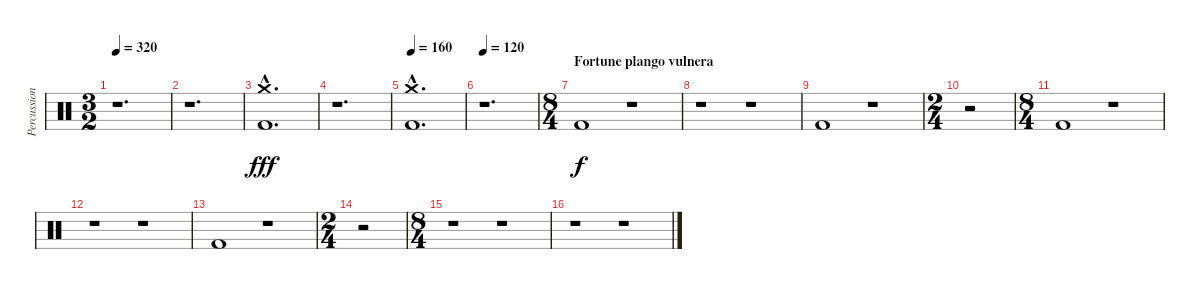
\track ("Percussion" "Percussion") {instrument percussion}
\staff {score}
\articulation defaults
\ts (3 2)
\tempo 320
\clef neutral
\ks c
r.1{d dy fff} |
r.1{d} |
("Kick (hit) 2"{hac} "Crash medium (hit)"{hac}).1{d} |
r.1{d} |
\tempo 160
("Kick (hit) 2"{hac} "Crash medium (hit)"{hac}).1{d} |
\tempo 120
r.1{d} |
\ts (8 4)
\section ("" "Fortune plango vulnera")
"Kick (hit) 2".1{dy f balance 4} r.1 |
r.1 r.1 |
"Kick (hit) 2".1 r.1 |
\ts (2 4)
r.2 |
\ts (8 4)
"Kick (hit) 2".1 r.1 |
r.1 r.1 |
"Kick (hit) 2".1 r.1 |
\ts (2 4)
r.2 |
\ts (8 4)
r.1 r.1 |
r.1 r.1
